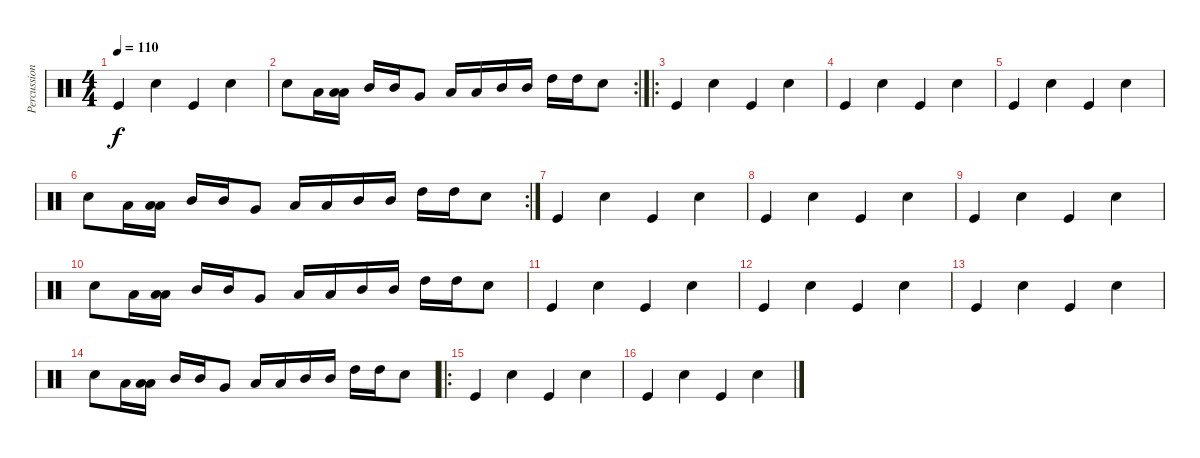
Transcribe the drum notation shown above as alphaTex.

\track ("Percussion" "Percussion") {instrument percussion}
\staff {score}
\articulation defaults
\ts (4 4)
\tempo 110
\clef neutral
\ks c "Kick (hit)".4{dy f} "Electric Snare (hit)".4 "Kick (hit)".4 "Electric Snare (hit)".4
|
\rc 2 "Electric Snare (hit)".8 "Low Tom (hit)".16
("Low Tom (hit)" "Low Tom (hit)").16 "Mid Tom (hit)".16 "Mid Tom (hit)".16 "Very Low Tom (hit)".8 "Low Tom (hit)".16 "Low Tom (hit)".16 "Mid Tom (hit)".16 "Mid Tom (hit)".16 "High Tom (hit)".16 "High Tom (hit)".16 "Electric Snare (hit)".8 |
\ro "Kick (hit)".4 "Electric Snare (hit)".4 "Kick (hit)".4 "Electric Snare (hit)".4
|
"Kick (hit)".4 "Electric Snare (hit)".4 "Kick (hit)".4 "Electric Snare (hit)".4 |
"Kick (hit)".4 "Electric Snare (hit)".4 "Kick (hit)".4 "Electric Snare (hit)".4 |
\rc 2 "Electric Snare (hit)".8 "Low Tom (hit)".16
("Low Tom (hit)" "Low Tom (hit)").16 "Mid Tom (hit)".16 "Mid Tom (hit)".16 "Very Low Tom (hit)".8 "Low Tom (hit)".16 "Low Tom (hit)".16 "Mid Tom (hit)".16 "Mid Tom (hit)".16 "High Tom (hit)".16 "High Tom (hit)".16 "Electric Snare (hit)".8 |
"Kick (hit)".4 "Electric Snare (hit)".4 "Kick (hit)".4 "Electric Snare (hit)".4 |
"Kick (hit)".4 "Electric Snare (hit)".4 "Kick (hit)".4 "Electric Snare (hit)".4 |
"Kick (hit)".4 "Electric Snare (hit)".4 "Kick (hit)".4 "Electric Snare (hit)".4 |
"Electric Snare (hit)".8 "Low Tom (hit)".16 ("Low Tom (hit)" "Low Tom (hit)").16 "Mid Tom (hit)".16 "Mid Tom (hit)".16 "Very Low Tom (hit)".8 "Low Tom (hit)".16 "Low Tom (hit)".16 "Mid Tom (hit)".16 "Mid Tom (hit)".16 "High Tom (hit)".16 "High Tom (hit)".16 "Electric Snare (hit)".8 |
"Kick (hit)".4 "Electric Snare (hit)".4 "Kick (hit)".4 "Electric Snare (hit)".4 |
"Kick (hit)".4 "Electric Snare (hit)".4 "Kick (hit)".4 "Electric Snare (hit)".4 |
"Kick (hit)".4 "Electric Snare (hit)".4 "Kick (hit)".4 "Electric Snare (hit)".4 |
"Electric Snare (hit)".8 "Low Tom (hit)".16 ("Low Tom (hit)" "Low Tom (hit)").16 "Mid Tom (hit)".16 "Mid Tom (hit)".16 "Very Low Tom (hit)".8 "Low Tom (hit)".16 "Low Tom (hit)".16 "Mid Tom (hit)".16 "Mid Tom (hit)".16 "High Tom (hit)".16 "High Tom (hit)".16 "Electric Snare (hit)".8 |
\ro "Kick (hit)".4 "Electric Snare (hit)".4 "Kick (hit)".4 "Electric Snare (hit)".4
|
"Kick (hit)".4 "Electric Snare (hit)".4 "Kick (hit)".4 "Electric Snare (hit)".4
